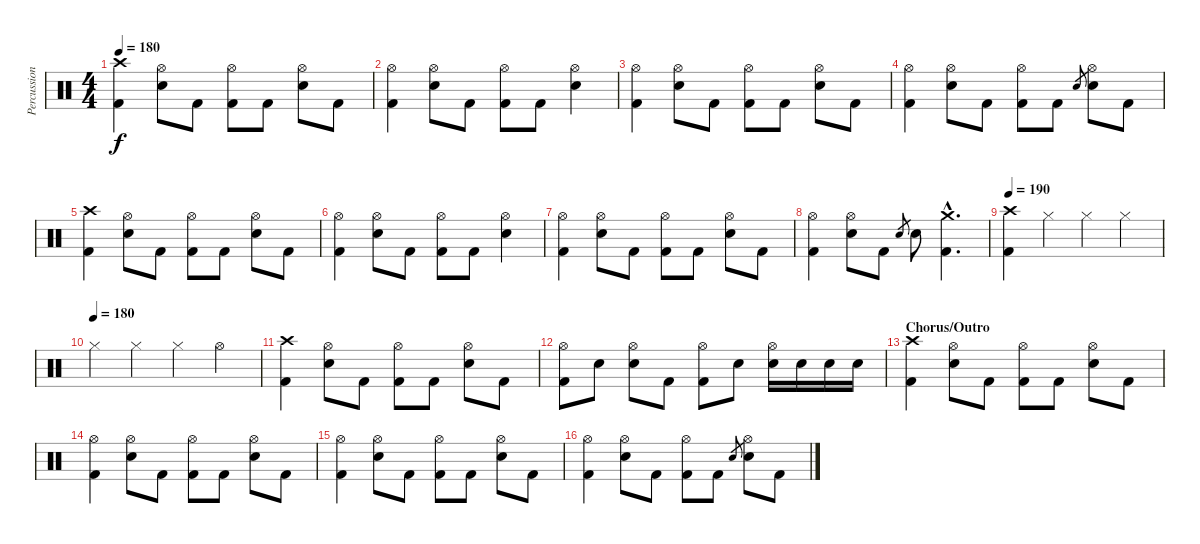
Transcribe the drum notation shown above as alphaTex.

\track ("Percussion" "Percussion") {instrument percussion}
\staff {score}
\articulation defaults
\ts (4 4)
\tempo 180
\clef neutral
\ks c
("Crash high (hit)" "Kick (hit) 2").4{dy f} ("Hi-Hat (open)" "Electric Snare (hit)").8 "Kick (hit) 2".8 ("Hi-Hat (open)" "Kick (hit) 2").8 "Kick (hit) 2".8 ("Hi-Hat (open)" "Electric Snare (hit)").8 "Kick (hit) 2".8 |
("Hi-Hat (open)" "Kick (hit) 2").4 ("Hi-Hat (open)" "Electric Snare (hit)").8 "Kick (hit) 2".8 ("Hi-Hat (open)" "Kick (hit) 2").8 "Kick (hit) 2".8 ("Hi-Hat (open)" "Electric Snare (hit)").4 |
("Hi-Hat (open)" "Kick (hit) 2").4 ("Hi-Hat (open)" "Electric Snare (hit)").8 "Kick (hit) 2".8 ("Hi-Hat (open)" "Kick (hit) 2").8 "Kick (hit) 2".8 ("Hi-Hat (open)" "Electric Snare (hit)").8 "Kick (hit) 2".8 |
("Hi-Hat (open)" "Kick (hit) 2").4 ("Hi-Hat (open)" "Electric Snare (hit)").8 "Kick (hit) 2".8 ("Hi-Hat (open)" "Kick (hit) 2").8 "Kick (hit) 2".8 "Electric Snare (hit)".8{gr} ("Hi-Hat (open)" "Electric Snare (hit)").8 "Kick (hit) 2".8 |
("Crash high (hit)" "Kick (hit) 2").4 ("Hi-Hat (open)" "Electric Snare (hit)").8 "Kick (hit) 2".8 ("Hi-Hat (open)" "Kick (hit) 2").8 "Kick (hit) 2".8 ("Hi-Hat (open)" "Electric Snare (hit)").8 "Kick (hit) 2".8 |
("Hi-Hat (open)" "Kick (hit) 2").4 ("Hi-Hat (open)" "Electric Snare (hit)").8 "Kick (hit) 2".8 ("Hi-Hat (open)" "Kick (hit) 2").8 "Kick (hit) 2".8 ("Hi-Hat (open)" "Electric Snare (hit)").4 |
("Hi-Hat (open)" "Kick (hit) 2").4 ("Hi-Hat (open)" "Electric Snare (hit)").8 "Kick (hit) 2".8 ("Hi-Hat (open)" "Kick (hit) 2").8 "Kick (hit) 2".8 ("Hi-Hat (open)" "Electric Snare (hit)").8 "Kick (hit) 2".8 |
("Hi-Hat (open)" "Kick (hit) 2").4 ("Hi-Hat (open)" "Electric Snare (hit)").8 "Kick (hit) 2".8 "Electric Snare (hit)".8{gr} "Electric Snare (hit)".8 ("Crash medium (hit)"{hac} "Kick (hit) 2"{hac}).4{d} |
\tempo 190
("Crash high (hit)" "Kick (hit) 2").4 "Hi-Hat (closed)".4 "Hi-Hat (closed)".4 "Hi-Hat (closed)".4 |
\tempo (180)
"Hi-Hat (closed)".4 "Hi-Hat (closed)".4 "Hi-Hat (closed)".4 "Hi-Hat (open)".4 |
("Crash high (hit)" "Kick (hit) 2").4 ("Hi-Hat (open)" "Electric Snare (hit)").8 "Kick (hit) 2".8 ("Hi-Hat (open)" "Kick (hit) 2").8 "Kick (hit) 2".8 ("Hi-Hat (open)" "Electric Snare (hit)").8 "Kick (hit) 2".8 |
("Hi-Hat (open)" "Kick (hit) 2").8 "Electric Snare (hit)".8 ("Hi-Hat (open)" "Electric Snare (hit)").8 "Kick (hit) 2".8 ("Hi-Hat (open)" "Kick (hit) 2").8 "Electric Snare (hit)".8 ("Hi-Hat (open)" "Electric Snare (hit)").16 "Electric Snare (hit)".16 "Electric Snare (hit)".16 "Electric Snare (hit)".16 |
\section ("" "Chorus/Outro")
("Crash high (hit)" "Kick (hit) 2").4 ("Hi-Hat (open)" "Electric Snare (hit)").8 "Kick (hit) 2".8 ("Hi-Hat (open)" "Kick (hit) 2").8 "Kick (hit) 2".8 ("Hi-Hat (open)" "Electric Snare (hit)").8 "Kick (hit) 2".8 |
("Hi-Hat (open)" "Kick (hit) 2").4 ("Hi-Hat (open)" "Electric Snare (hit)").8 "Kick (hit) 2".8 ("Hi-Hat (open)" "Kick (hit) 2").8 "Kick (hit) 2".8 ("Hi-Hat (open)" "Electric Snare (hit)").8 "Kick (hit) 2".8 |
("Hi-Hat (open)" "Kick (hit) 2").4 ("Hi-Hat (open)" "Electric Snare (hit)").8 "Kick (hit) 2".8 ("Hi-Hat (open)" "Kick (hit) 2").8 "Kick (hit) 2".8 ("Hi-Hat (open)" "Electric Snare (hit)").8 "Kick (hit) 2".8 |
("Hi-Hat (open)" "Kick (hit) 2").4 ("Hi-Hat (open)" "Electric Snare (hit)").8 "Kick (hit) 2".8 ("Hi-Hat (open)" "Kick (hit) 2").8 "Kick (hit) 2".8 "Electric Snare (hit)".8{gr} ("Hi-Hat (open)" "Electric Snare (hit)").8 "Kick (hit) 2".8
